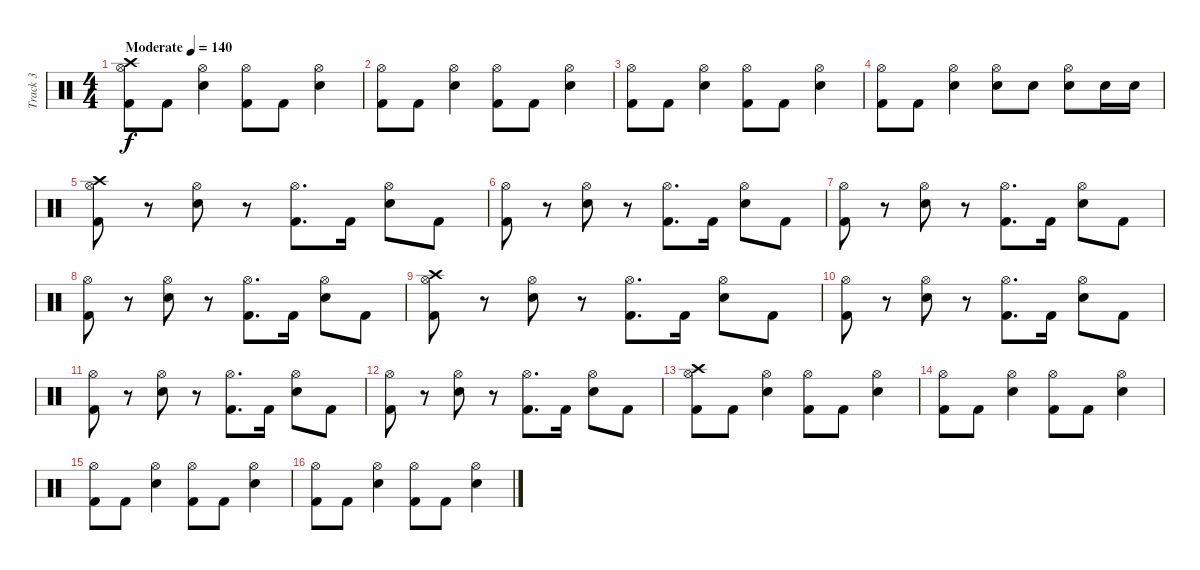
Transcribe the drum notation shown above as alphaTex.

\track ("Track 3" "Track 3") {instrument percussion}
\staff {score}
\articulation defaults
\ts (4 4)
\tempo (140 "Moderate")
\clef neutral
\ks c
("Kick (hit) 2" "Hi-Hat (open)" "Crash high (hit)").8{dy f} "Kick (hit) 2".8 ("Electric Snare (hit)" "Hi-Hat (open)").4 ("Hi-Hat (open)" "Kick (hit) 2").8 "Kick (hit) 2".8 ("Hi-Hat (open)" "Electric Snare (hit)").4 |
("Kick (hit) 2" "Hi-Hat (open)").8 "Kick (hit) 2".8 ("Electric Snare (hit)" "Hi-Hat (open)").4 ("Hi-Hat (open)" "Kick (hit) 2").8 "Kick (hit) 2".8 ("Hi-Hat (open)" "Electric Snare (hit)").4 |
("Kick (hit) 2" "Hi-Hat (open)").8 "Kick (hit) 2".8 ("Electric Snare (hit)" "Hi-Hat (open)").4 ("Hi-Hat (open)" "Kick (hit) 2").8 "Kick (hit) 2".8 ("Hi-Hat (open)" "Electric Snare (hit)").4 |
("Kick (hit) 2" "Hi-Hat (open)").8 "Kick (hit) 2".8 ("Electric Snare (hit)" "Hi-Hat (open)").4 ("Hi-Hat (open)" "Electric Snare (hit)").8 "Electric Snare (hit)".8 ("Hi-Hat (open)" "Electric Snare (hit)").8 "Electric Snare (hit)".16 "Electric Snare (hit)".16 |
("Crash high (hit)" "Kick (hit) 2" "Hi-Hat (open)").8 r.8 ("Hi-Hat (open)" "Electric Snare (hit)").8 r.8 ("Kick (hit) 2" "Hi-Hat (open)").8{d} "Kick (hit) 2".16 ("Electric Snare (hit)" "Hi-Hat (open)").8 "Kick (hit) 2".8 |
("Kick (hit) 2" "Hi-Hat (open)").8 r.8 ("Hi-Hat (open)" "Electric Snare (hit)").8 r.8 ("Kick (hit) 2" "Hi-Hat (open)").8{d} "Kick (hit) 2".16 ("Electric Snare (hit)" "Hi-Hat (open)").8 "Kick (hit) 2".8 |
("Kick (hit) 2" "Hi-Hat (open)").8 r.8 ("Hi-Hat (open)" "Electric Snare (hit)").8 r.8 ("Kick (hit) 2" "Hi-Hat (open)").8{d} "Kick (hit) 2".16 ("Electric Snare (hit)" "Hi-Hat (open)").8 "Kick (hit) 2".8 |
("Kick (hit) 2" "Hi-Hat (open)").8 r.8 ("Hi-Hat (open)" "Electric Snare (hit)").8 r.8 ("Kick (hit) 2" "Hi-Hat (open)").8{d} "Kick (hit) 2".16 ("Electric Snare (hit)" "Hi-Hat (open)").8 "Kick (hit) 2".8 |
("Crash high (hit)" "Kick (hit) 2" "Hi-Hat (open)").8 r.8 ("Hi-Hat (open)" "Electric Snare (hit)").8 r.8 ("Kick (hit) 2" "Hi-Hat (open)").8{d} "Kick (hit) 2".16 ("Electric Snare (hit)" "Hi-Hat (open)").8 "Kick (hit) 2".8 |
("Kick (hit) 2" "Hi-Hat (open)").8 r.8 ("Hi-Hat (open)" "Electric Snare (hit)").8 r.8 ("Kick (hit) 2" "Hi-Hat (open)").8{d} "Kick (hit) 2".16 ("Electric Snare (hit)" "Hi-Hat (open)").8 "Kick (hit) 2".8 |
("Kick (hit) 2" "Hi-Hat (open)").8 r.8 ("Hi-Hat (open)" "Electric Snare (hit)").8 r.8 ("Kick (hit) 2" "Hi-Hat (open)").8{d} "Kick (hit) 2".16 ("Electric Snare (hit)" "Hi-Hat (open)").8 "Kick (hit) 2".8 |
("Kick (hit) 2" "Hi-Hat (open)").8 r.8 ("Hi-Hat (open)" "Electric Snare (hit)").8 r.8 ("Kick (hit) 2" "Hi-Hat (open)").8{d} "Kick (hit) 2".16 ("Electric Snare (hit)" "Hi-Hat (open)").8 "Kick (hit) 2".8 |
("Kick (hit) 2" "Hi-Hat (open)" "Crash high (hit)").8 "Kick (hit) 2".8 ("Electric Snare (hit)" "Hi-Hat (open)").4 ("Hi-Hat (open)" "Kick (hit) 2").8 "Kick (hit) 2".8 ("Hi-Hat (open)" "Electric Snare (hit)").4 |
("Kick (hit) 2" "Hi-Hat (open)").8 "Kick (hit) 2".8 ("Electric Snare (hit)" "Hi-Hat (open)").4 ("Hi-Hat (open)" "Kick (hit) 2").8 "Kick (hit) 2".8 ("Hi-Hat (open)" "Electric Snare (hit)").4 |
("Kick (hit) 2" "Hi-Hat (open)").8 "Kick (hit) 2".8 ("Electric Snare (hit)" "Hi-Hat (open)").4 ("Hi-Hat (open)" "Kick (hit) 2").8 "Kick (hit) 2".8 ("Hi-Hat (open)" "Electric Snare (hit)").4 |
("Kick (hit) 2" "Hi-Hat (open)").8 "Kick (hit) 2".8 ("Electric Snare (hit)" "Hi-Hat (open)").4 ("Hi-Hat (open)" "Kick (hit) 2").8 "Kick (hit) 2".8 ("Hi-Hat (open)" "Electric Snare (hit)").4
